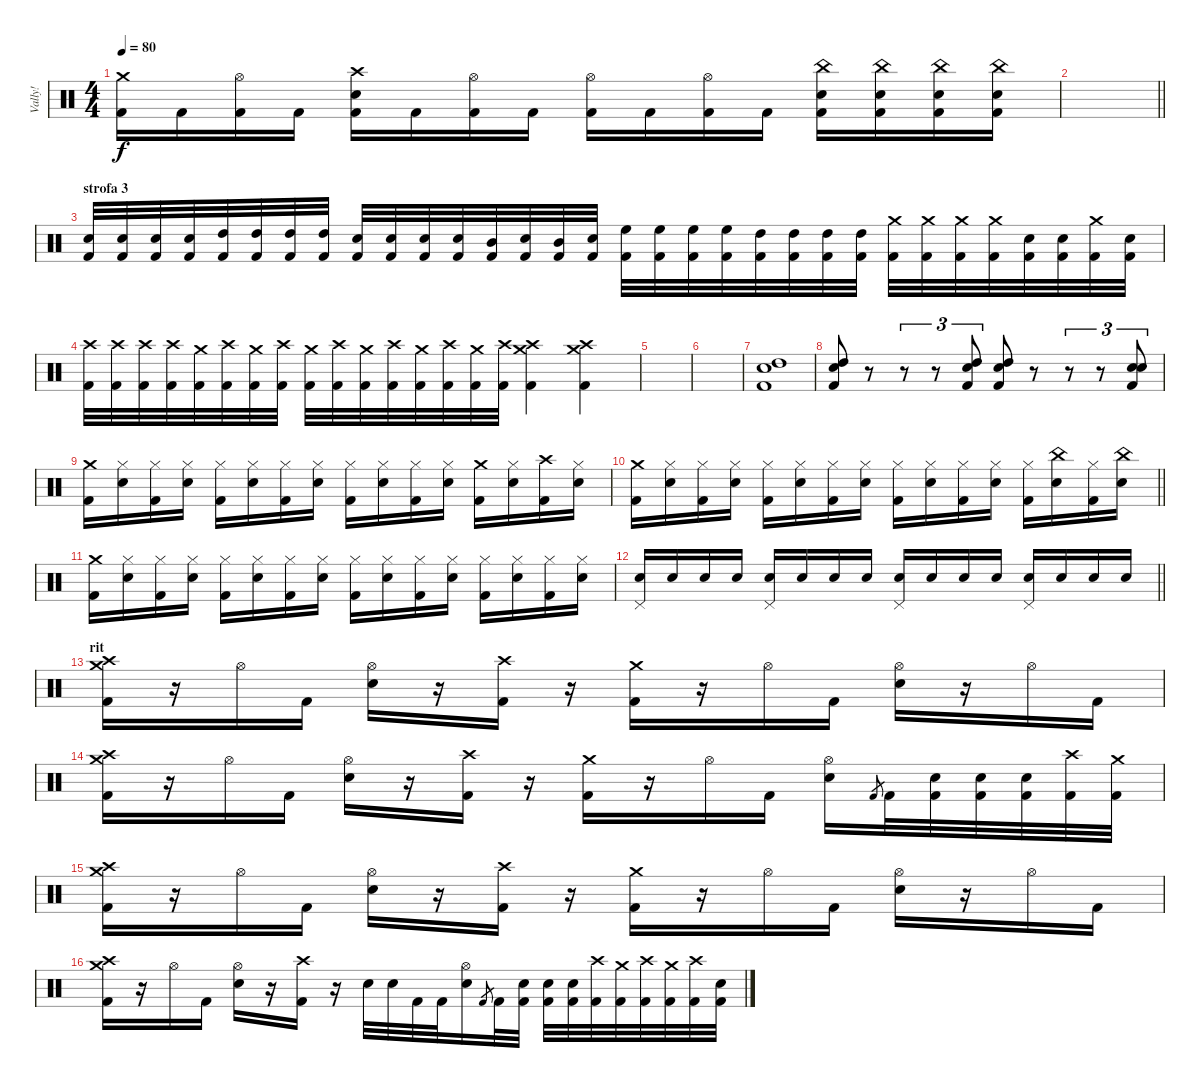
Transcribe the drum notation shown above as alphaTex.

\track ("Vally!" "Vally!") {instrument percussion}
\staff {score}
\articulation defaults
\ts (4 4)
\tempo 80
\clef neutral
\ks c
("Crash medium (hit)" "Kick (hit) 2").16{dy f} "Kick (hit) 2".16 ("Hi-Hat (open)" "Kick (hit) 2").16 "Kick (hit) 2".16 ("Crash high (hit)" "Electric Snare (hit)" "Kick (hit) 2").16 "Kick (hit) 2".16 ("Hi-Hat (open)" "Kick (hit) 2").16 "Kick (hit) 2".16 ("Hi-Hat (open)" "Kick (hit) 2").16 "Kick (hit) 2".16 ("Hi-Hat (open)" "Kick (hit) 2").16 "Kick (hit) 2".16 ("China (hit)" "Electric Snare (hit)" "Kick (hit) 2").16 ("China (hit)" "Electric Snare (hit)" "Kick (hit) 2").16 ("China (hit)" "Electric Snare (hit)" "Kick (hit) 2").16 ("China (hit)" "Electric Snare (hit)" "Kick (hit) 2").16 |
\barLineRight lightlight
|
\section ("" "strofa 3")
("Electric Snare (hit)" "Kick (hit) 2").32 ("Electric Snare (hit)" "Kick (hit) 2").32 ("Electric Snare (hit)" "Kick (hit) 2").32 ("Electric Snare (hit)" "Kick (hit) 2").32 ("High Tom (hit)" "Kick (hit) 2").32 ("High Tom (hit)" "Kick (hit) 2").32 ("High Tom (hit)" "Kick (hit) 2").32 ("High Tom (hit)" "Kick (hit) 2").32 ("Electric Snare (hit)" "Kick (hit) 2").32 ("Electric Snare (hit)" "Kick (hit) 2").32 ("Electric Snare (hit)" "Kick (hit) 2").32 ("Electric Snare (hit)" "Kick (hit) 2").32 ("Mid Tom (hit)" "Kick (hit) 2").32 ("Electric Snare (hit)" "Kick (hit) 2").32 ("Mid Tom (hit)" "Kick (hit) 2").32 ("Electric Snare (hit)" "Kick (hit) 2").32 ("High Floor Tom (hit)" "Kick (hit) 2").32 ("High Floor Tom (hit)" "Kick (hit) 2").32 ("High Floor Tom (hit)" "Kick (hit) 2").32 ("High Floor Tom (hit)" "Kick (hit) 2").32 ("High Tom (hit)" "Kick (hit) 2").32 ("High Tom (hit)" "Kick (hit) 2").32 ("High Tom (hit)" "Kick (hit) 2").32 ("High Tom (hit)" "Kick (hit) 2").32 ("Crash medium (hit)" "Kick (hit) 2").32 ("Crash medium (hit)" "Kick (hit) 2").32 ("Crash medium (hit)" "Kick (hit) 2").32 ("Crash medium (hit)" "Kick (hit) 2").32 ("Electric Snare (hit)" "Kick (hit) 2").32 ("Electric Snare (hit)" "Kick (hit) 2").32 ("Crash medium (hit)" "Kick (hit) 2").32 ("Electric Snare (hit)" "Kick (hit) 2").32 |
("Crash high (hit)" "Kick (hit) 2").32 ("Crash high (hit)" "Kick (hit) 2").32 ("Crash high (hit)" "Kick (hit) 2").32 ("Crash high (hit)" "Kick (hit) 2").32 ("Crash medium (hit)" "Kick (hit) 2").32 ("Crash high (hit)" "Kick (hit) 2").32 ("Crash medium (hit)" "Kick (hit) 2").32 ("Crash high (hit)" "Kick (hit) 2").32 ("Crash medium (hit)" "Kick (hit) 2").32 ("Crash high (hit)" "Kick (hit) 2").32 ("Crash medium (hit)" "Kick (hit) 2").32 ("Crash high (hit)" "Kick (hit) 2").32 ("Crash medium (hit)" "Kick (hit) 2").32 ("Crash high (hit)" "Kick (hit) 2").32 ("Crash medium (hit)" "Kick (hit) 2").32 ("Crash high (hit)" "Kick (hit) 2").32 ("Crash high (hit)" "Crash medium (hit)" "Kick (hit) 2").4 ("Crash high (hit)" "Crash medium (hit)" "Kick (hit) 2").4 |
|
|
("Electric Snare (hit)" "High Tom (hit)" "Kick (hit) 2").1 |
("Electric Snare (hit)" "High Tom (hit)" "Kick (hit) 2").8 r.8 r.8{tu (3 2)} r.8{tu (3 2)} ("Electric Snare (hit)" "High Tom (hit)" "Kick (hit) 2").8{tu (3 2)} ("Electric Snare (hit)" "High Tom (hit)" "Kick (hit) 2").8 r.8 r.8{tu (3 2)} r.8{tu (3 2)} ("Electric Snare (hit)" "Snare (hit) 2" "Kick (hit) 2").8{tu (3 2)} |
("Crash medium (hit)" "Kick (hit) 2").16 ("Hi-Hat (closed)" "Electric Snare (hit)").16 ("Hi-Hat (closed)" "Kick (hit) 2").16 ("Hi-Hat (closed)" "Electric Snare (hit)").16 ("Hi-Hat (closed)" "Kick (hit) 2").16 ("Hi-Hat (closed)" "Electric Snare (hit)").16 ("Hi-Hat (closed)" "Kick (hit) 2").16 ("Hi-Hat (closed)" "Electric Snare (hit)").16 ("Hi-Hat (closed)" "Kick (hit) 2").16 ("Hi-Hat (closed)" "Electric Snare (hit)").16 ("Hi-Hat (closed)" "Kick (hit) 2").16 ("Hi-Hat (closed)" "Electric Snare (hit)").16 ("Crash medium (hit)" "Kick (hit) 2").16 ("Hi-Hat (closed)" "Electric Snare (hit)").16 ("Crash high (hit)" "Kick (hit) 2").16 ("Hi-Hat (closed)" "Electric Snare (hit)").16 |
\barLineRight lightlight
("Crash medium (hit)" "Kick (hit) 2").16 ("Hi-Hat (closed)" "Electric Snare (hit)").16 ("Hi-Hat (closed)" "Kick (hit) 2").16 ("Hi-Hat (closed)" "Electric Snare (hit)").16 ("Hi-Hat (closed)" "Kick (hit) 2").16 ("Hi-Hat (closed)" "Electric Snare (hit)").16 ("Hi-Hat (closed)" "Kick (hit) 2").16 ("Hi-Hat (closed)" "Electric Snare (hit)").16 ("Hi-Hat (closed)" "Kick (hit) 2").16 ("Hi-Hat (closed)" "Electric Snare (hit)").16 ("Hi-Hat (closed)" "Kick (hit) 2").16 ("Hi-Hat (closed)" "Electric Snare (hit)").16 ("Hi-Hat (closed)" "Kick (hit) 2").16 ("China (hit)" "Electric Snare (hit)").16 ("Hi-Hat (closed)" "Kick (hit) 2").16 ("China (hit)" "Electric Snare (hit)").16 |
("Crash medium (hit)" "Kick (hit) 2").16 ("Hi-Hat (closed)" "Electric Snare (hit)").16 ("Hi-Hat (closed)" "Kick (hit) 2").16 ("Hi-Hat (closed)" "Electric Snare (hit)").16 ("Hi-Hat (closed)" "Kick (hit) 2").16 ("Hi-Hat (closed)" "Electric Snare (hit)").16 ("Hi-Hat (closed)" "Kick (hit) 2").16 ("Hi-Hat (closed)" "Electric Snare (hit)").16 ("Hi-Hat (closed)" "Kick (hit) 2").16 ("Hi-Hat (closed)" "Electric Snare (hit)").16 ("Hi-Hat (closed)" "Kick (hit) 2").16 ("Hi-Hat (closed)" "Electric Snare (hit)").16 ("Hi-Hat (closed)" "Kick (hit) 2").16 ("Hi-Hat (closed)" "Electric Snare (hit)").16 ("Hi-Hat (closed)" "Kick (hit) 2").16 ("Hi-Hat (closed)" "Electric Snare (hit)").16 |
\barLineRight lightlight
("Electric Snare (hit)" "Pedal Hi-Hat (hit)").16 "Electric Snare (hit)".16 "Electric Snare (hit)".16 "Electric Snare (hit)".16 ("Electric Snare (hit)" "Pedal Hi-Hat (hit)").16 "Electric Snare (hit)".16 "Electric Snare (hit)".16 "Electric Snare (hit)".16 ("Electric Snare (hit)" "Pedal Hi-Hat (hit)").16 "Electric Snare (hit)".16 "Electric Snare (hit)".16 "Electric Snare (hit)".16 ("Electric Snare (hit)" "Pedal Hi-Hat (hit)").16 "Electric Snare (hit)".16 "Electric Snare (hit)".16 "Electric Snare (hit)".16 |
\section ("" "rit")
("Crash high (hit)" "Crash medium (hit)" "Kick (hit) 2").16 r.16 "Hi-Hat (open)".16 "Kick (hit) 2".16 ("Hi-Hat (open)" "Electric Snare (hit)").16 r.16 ("Crash high (hit)" "Kick (hit) 2").16 r.16 ("Crash medium (hit)" "Kick (hit) 2").16 r.16 "Hi-Hat (open)".16 "Kick (hit) 2".16 ("Hi-Hat (open)" "Electric Snare (hit)").16 r.16 "Hi-Hat (open)".16 "Kick (hit) 2".16 |
("Crash high (hit)" "Crash medium (hit)" "Kick (hit) 2").16 r.16 "Hi-Hat (open)".16 "Kick (hit) 2".16 ("Hi-Hat (open)" "Electric Snare (hit)").16 r.16 ("Crash high (hit)" "Kick (hit) 2").16 r.16 ("Crash medium (hit)" "Kick (hit) 2").16 r.16 "Hi-Hat (open)".16 "Kick (hit) 2".16 ("Hi-Hat (open)" "Electric Snare (hit)").16 "Kick (hit) 2".8{gr} "Kick (hit) 2".32 ("Electric Snare (hit)" "Kick (hit) 2").32 ("Electric Snare (hit)" "Kick (hit) 2").32 ("Electric Snare (hit)" "Kick (hit) 2").32 ("Crash high (hit)" "Kick (hit) 2").32 ("Crash medium (hit)" "Kick (hit) 2").32 |
("Crash high (hit)" "Crash medium (hit)" "Kick (hit) 2").16 r.16 "Hi-Hat (open)".16 "Kick (hit) 2".16 ("Hi-Hat (open)" "Electric Snare (hit)").16 r.16 ("Crash high (hit)" "Kick (hit) 2").16 r.16 ("Crash medium (hit)" "Kick (hit) 2").16 r.16 "Hi-Hat (open)".16 "Kick (hit) 2".16 ("Hi-Hat (open)" "Electric Snare (hit)").16 r.16 "Hi-Hat (open)".16 "Kick (hit) 2".16 |
("Crash high (hit)" "Crash medium (hit)" "Kick (hit) 2").16 r.16 "Hi-Hat (open)".16 "Kick (hit) 2".16 ("Hi-Hat (open)" "Electric Snare (hit)").16 r.16 ("Crash high (hit)" "Kick (hit) 2").16 r.16 "Electric Snare (hit)".32 "Electric Snare (hit)".32 "Kick (hit) 2".32 "Kick (hit) 2".32 ("Hi-Hat (open)" "Electric Snare (hit)").16 "Kick (hit) 2".8{gr} "Kick (hit) 2".32 ("Electric Snare (hit)" "Kick (hit) 2").32 ("Electric Snare (hit)" "Kick (hit) 2").32 ("Electric Snare (hit)" "Kick (hit) 2").32 ("Crash high (hit)" "Kick (hit) 2").32 ("Crash medium (hit)" "Kick (hit) 2").32 ("Crash high (hit)" "Kick (hit) 2").32 ("Crash medium (hit)" "Kick (hit) 2").32 ("Crash high (hit)" "Kick (hit) 2").32 ("Electric Snare (hit)" "Kick (hit) 2").32
